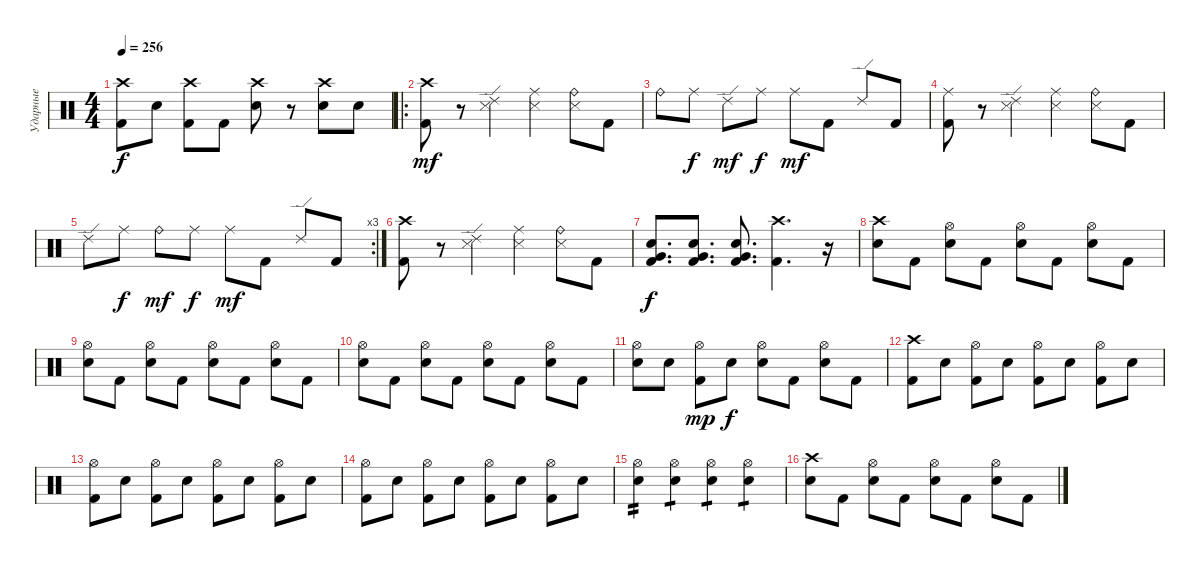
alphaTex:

\track ("Ударные" "Ударные") {instrument percussion}
\staff {score}
\articulation defaults
\ts (4 4)
\tempo 256
\clef neutral
\ks c
("Crash high (hit)" "Kick (hit) 2").8{dy f} "Electric Snare (hit)".8 ("Crash high (hit)" "Kick (hit) 2").8 "Kick (hit) 2".8 ("Crash high (hit)" "Electric Snare (hit)").8 r.8 ("Crash high (hit)" "Electric Snare (hit)").8 "Electric Snare (hit)".8 |
\ro
("Crash high (hit)" "Kick (hit) 2").8{dy mf} r.8 ("Ride (edge) 2" "Metronome (hit)").4 ("Ride (middle)" "Metronome (hit)").4 ("Ride (bell)" "Metronome (hit)").8 "Kick (hit) 2".8 |
"Ride (bell)".8 "Ride (middle)".8{dy f} "Ride (edge) 2".8{dy mf} "Ride (middle)".8{dy f} "Ride (middle)".8{dy mf} "Kick (hit) 2".8 "Ride (edge) 2".8 "Kick (hit) 2".8 |
("Ride (middle)" "Kick (hit) 2").8 r.8 ("Ride (edge) 2" "Metronome (hit)").4 ("Ride (middle)" "Metronome (hit)").4 ("Ride (bell)" "Metronome (hit)").8 "Kick (hit) 2".8 |
\rc 3 "Ride (edge) 2".8 "Ride (middle)".8{dy f} "Ride (bell)".8{dy mf} "Ride (middle)".8{dy f} "Ride (middle)".8{dy mf} "Kick (hit) 2".8 "Ride (edge) 2".8 "Kick (hit) 2".8
|
("Crash high (hit)" "Kick (hit) 2").8 r.8 ("Ride (edge) 2" "Metronome (hit)").4 ("Ride (middle)" "Metronome (hit)").4 ("Ride (bell)" "Metronome (hit)").8 "Kick (hit) 2".8 |
("Very Low Tom (hit)" "Snare (hit) 2" "Kick (hit) 2").8{d dy f} ("Very Low Tom (hit)" "Snare (hit) 2" "Kick (hit) 2").8{d} ("Very Low Tom (hit)" "Snare (hit) 2" "Kick (hit) 2").8{d} ("Crash high (hit)" "Kick (hit) 2").4{d} r.16 |
("Crash high (hit)" "Electric Snare (hit)").8 "Kick (hit) 2".8 ("Hi-Hat (open)" "Electric Snare (hit)").8 "Kick (hit) 2".8 ("Hi-Hat (open)" "Electric Snare (hit)").8 "Kick (hit) 2".8 ("Hi-Hat (open)" "Electric Snare (hit)").8 "Kick (hit) 2".8 |
("Hi-Hat (open)" "Electric Snare (hit)").8 "Kick (hit) 2".8 ("Hi-Hat (open)" "Electric Snare (hit)").8 "Kick (hit) 2".8 ("Hi-Hat (open)" "Electric Snare (hit)").8 "Kick (hit) 2".8 ("Hi-Hat (open)" "Electric Snare (hit)").8 "Kick (hit) 2".8 |
("Hi-Hat (open)" "Electric Snare (hit)").8 "Kick (hit) 2".8 ("Hi-Hat (open)" "Electric Snare (hit)").8 "Kick (hit) 2".8 ("Hi-Hat (open)" "Electric Snare (hit)").8 "Kick (hit) 2".8 ("Hi-Hat (open)" "Electric Snare (hit)").8 "Kick (hit) 2".8 |
("Hi-Hat (open)" "Electric Snare (hit)").8 "Electric Snare (hit)".8 ("Hi-Hat (open)" "Kick (hit) 2").8{dy mp} "Electric Snare (hit)".8{dy f} ("Hi-Hat (open)" "Electric Snare (hit)").8 "Kick (hit) 2".8 ("Hi-Hat (open)" "Electric Snare (hit)").8 "Kick (hit) 2".8 |
("Crash high (hit)" "Kick (hit) 2").8 "Electric Snare (hit)".8 ("Hi-Hat (open)" "Kick (hit) 2").8 "Electric Snare (hit)".8 ("Hi-Hat (open)" "Kick (hit) 2").8 "Electric Snare (hit)".8 ("Hi-Hat (open)" "Kick (hit) 2").8 "Electric Snare (hit)".8 |
("Hi-Hat (open)" "Kick (hit) 2").8 "Electric Snare (hit)".8 ("Hi-Hat (open)" "Kick (hit) 2").8 "Electric Snare (hit)".8 ("Hi-Hat (open)" "Kick (hit) 2").8 "Electric Snare (hit)".8 ("Hi-Hat (open)" "Kick (hit) 2").8 "Electric Snare (hit)".8 |
("Hi-Hat (open)" "Kick (hit) 2").8 "Electric Snare (hit)".8 ("Hi-Hat (open)" "Kick (hit) 2").8 "Electric Snare (hit)".8 ("Hi-Hat (open)" "Kick (hit) 2").8 "Electric Snare (hit)".8 ("Hi-Hat (open)" "Kick (hit) 2").8 "Electric Snare (hit)".8 |
("Hi-Hat (open)" "Electric Snare (hit)").4{tp 2} ("Hi-Hat (open)" "Electric Snare (hit)").4{tp 1} ("Hi-Hat (open)" "Electric Snare (hit)").4{tp 1} ("Hi-Hat (open)" "Electric Snare (hit)").4{tp 1} |
("Crash high (hit)" "Electric Snare (hit)").8 "Kick (hit) 2".8 ("Hi-Hat (open)" "Electric Snare (hit)").8 "Kick (hit) 2".8 ("Hi-Hat (open)" "Electric Snare (hit)").8 "Kick (hit) 2".8 ("Hi-Hat (open)" "Electric Snare (hit)").8 "Kick (hit) 2".8
